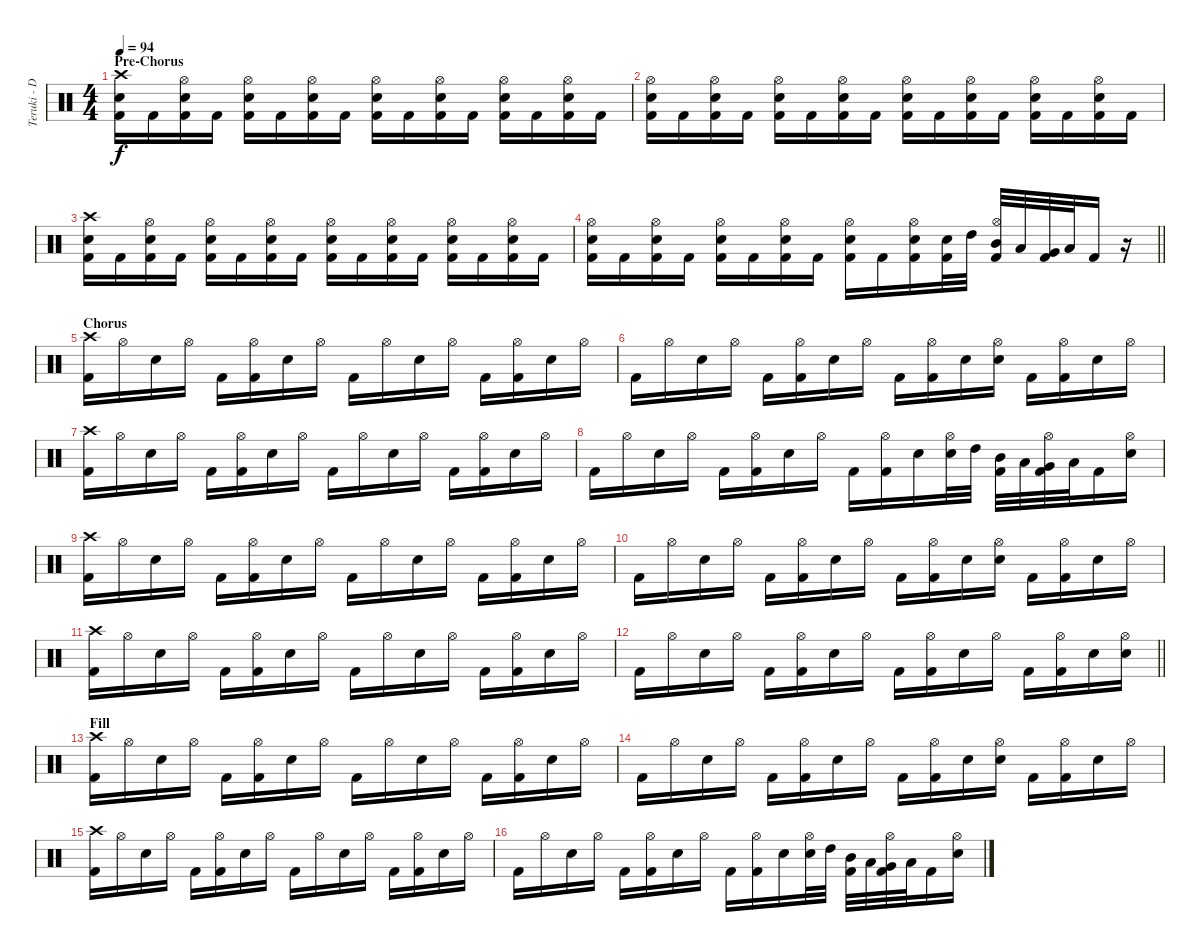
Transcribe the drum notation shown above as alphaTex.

\track ("Teruki - Drums" "Teruki - D") {instrument percussion}
\staff {score}
\articulation defaults
\ts (4 4)
\section ("" "Pre-Chorus")
\tempo 94
\clef neutral
\ks c
("Crash high (hit)" "Electric Snare (hit)" "Kick (hit) 2").16{dy f} "Kick (hit) 2".16 ("Hi-Hat (open)" "Electric Snare (hit)" "Kick (hit) 2").16 "Kick (hit) 2".16 ("Hi-Hat (open)" "Electric Snare (hit)" "Kick (hit) 2").16 "Kick (hit) 2".16 ("Hi-Hat (open)" "Electric Snare (hit)" "Kick (hit) 2").16 "Kick (hit) 2".16 ("Hi-Hat (open)" "Electric Snare (hit)" "Kick (hit) 2").16 "Kick (hit) 2".16 ("Hi-Hat (open)" "Electric Snare (hit)" "Kick (hit) 2").16 "Kick (hit) 2".16 ("Hi-Hat (open)" "Electric Snare (hit)" "Kick (hit) 2").16 "Kick (hit) 2".16 ("Hi-Hat (open)" "Electric Snare (hit)" "Kick (hit) 2").16 "Kick (hit) 2".16 |
("Hi-Hat (open)" "Electric Snare (hit)" "Kick (hit) 2").16 "Kick (hit) 2".16 ("Hi-Hat (open)" "Electric Snare (hit)" "Kick (hit) 2").16 "Kick (hit) 2".16 ("Hi-Hat (open)" "Electric Snare (hit)" "Kick (hit) 2").16 "Kick (hit) 2".16 ("Hi-Hat (open)" "Electric Snare (hit)" "Kick (hit) 2").16 "Kick (hit) 2".16 ("Hi-Hat (open)" "Electric Snare (hit)" "Kick (hit) 2").16 "Kick (hit) 2".16 ("Hi-Hat (open)" "Electric Snare (hit)" "Kick (hit) 2").16 "Kick (hit) 2".16 ("Hi-Hat (open)" "Electric Snare (hit)" "Kick (hit) 2").16 "Kick (hit) 2".16 ("Hi-Hat (open)" "Electric Snare (hit)" "Kick (hit) 2").16 "Kick (hit) 2".16 |
("Crash high (hit)" "Electric Snare (hit)" "Kick (hit) 2").16 "Kick (hit) 2".16 ("Hi-Hat (open)" "Electric Snare (hit)" "Kick (hit) 2").16 "Kick (hit) 2".16 ("Hi-Hat (open)" "Electric Snare (hit)" "Kick (hit) 2").16 "Kick (hit) 2".16 ("Hi-Hat (open)" "Electric Snare (hit)" "Kick (hit) 2").16 "Kick (hit) 2".16 ("Hi-Hat (open)" "Electric Snare (hit)" "Kick (hit) 2").16 "Kick (hit) 2".16 ("Hi-Hat (open)" "Electric Snare (hit)" "Kick (hit) 2").16 "Kick (hit) 2".16 ("Hi-Hat (open)" "Electric Snare (hit)" "Kick (hit) 2").16 "Kick (hit) 2".16 ("Hi-Hat (open)" "Electric Snare (hit)" "Kick (hit) 2").16 "Kick (hit) 2".16 |
\barLineRight lightlight
("Hi-Hat (open)" "Electric Snare (hit)" "Kick (hit) 2").16 "Kick (hit) 2".16 ("Hi-Hat (open)" "Electric Snare (hit)" "Kick (hit) 2").16 "Kick (hit) 2".16 ("Hi-Hat (open)" "Electric Snare (hit)" "Kick (hit) 2").16 "Kick (hit) 2".16 ("Hi-Hat (open)" "Electric Snare (hit)" "Kick (hit) 2").16 "Kick (hit) 2".16 ("Hi-Hat (open)" "Electric Snare (hit)" "Kick (hit) 2").16 "Kick (hit) 2".16 ("Hi-Hat (open)" "Electric Snare (hit)" "Kick (hit) 2").16 ("Electric Snare (hit)" "Kick (hit) 2").32 "High Tom (hit)".32 ("Hi-Hat (open)" "Mid Tom (hit)" "Kick (hit) 2").32 "Low Tom (hit)".32 ("Very Low Tom (hit)" "Kick (hit) 2").32 "Low Floor Tom (hit)".32 "Kick (hit) 2".16 r.16 |
\section ("" "Chorus")
("Crash high (hit)" "Kick (hit) 2").16 "Hi-Hat (open)".16 "Electric Snare (hit)".16 "Hi-Hat (open)".16 "Kick (hit) 2".16 ("Hi-Hat (open)" "Kick (hit) 2").16 "Electric Snare (hit)".16 "Hi-Hat (open)".16 "Kick (hit) 2".16 "Hi-Hat (open)".16 "Electric Snare (hit)".16 "Hi-Hat (open)".16 "Kick (hit) 2".16 ("Hi-Hat (open)" "Kick (hit) 2").16 "Electric Snare (hit)".16 "Hi-Hat (open)".16 |
"Kick (hit) 2".16 "Hi-Hat (open)".16 "Electric Snare (hit)".16 "Hi-Hat (open)".16 "Kick (hit) 2".16 ("Hi-Hat (open)" "Kick (hit) 2").16 "Electric Snare (hit)".16 "Hi-Hat (open)".16 "Kick (hit) 2".16 ("Hi-Hat (open)" "Kick (hit) 2").16 "Electric Snare (hit)".16 ("Hi-Hat (open)" "Electric Snare (hit)").16 "Kick (hit) 2".16 ("Hi-Hat (open)" "Kick (hit) 2").16 "Electric Snare (hit)".16 "Hi-Hat (open)".16 |
("Crash high (hit)" "Kick (hit) 2").16 "Hi-Hat (open)".16 "Electric Snare (hit)".16 "Hi-Hat (open)".16 "Kick (hit) 2".16 ("Hi-Hat (open)" "Kick (hit) 2").16 "Electric Snare (hit)".16 "Hi-Hat (open)".16 "Kick (hit) 2".16 "Hi-Hat (open)".16 "Electric Snare (hit)".16 "Hi-Hat (open)".16 "Kick (hit) 2".16 ("Hi-Hat (open)" "Kick (hit) 2").16 "Electric Snare (hit)".16 "Hi-Hat (open)".16 |
"Kick (hit) 2".16 "Hi-Hat (open)".16 "Electric Snare (hit)".16 "Hi-Hat (open)".16 "Kick (hit) 2".16 ("Hi-Hat (open)" "Kick (hit) 2").16 "Electric Snare (hit)".16 "Hi-Hat (open)".16 "Kick (hit) 2".16 ("Hi-Hat (open)" "Kick (hit) 2").16 "Electric Snare (hit)".16 ("Hi-Hat (open)" "Electric Snare (hit)").32 "High Tom (hit)".32 ("Mid Tom (hit)" "Kick (hit) 2").32 "Low Tom (hit)".32 ("Hi-Hat (open)" "Very Low Tom (hit)" "Kick (hit) 2").32 "Low Floor Tom (hit)".32 "Kick (hit) 2".16 ("Hi-Hat (open)" "Electric Snare (hit)").16 |
("Crash high (hit)" "Kick (hit) 2").16 "Hi-Hat (open)".16 "Electric Snare (hit)".16 "Hi-Hat (open)".16 "Kick (hit) 2".16 ("Hi-Hat (open)" "Kick (hit) 2").16 "Electric Snare (hit)".16 "Hi-Hat (open)".16 "Kick (hit) 2".16 "Hi-Hat (open)".16 "Electric Snare (hit)".16 "Hi-Hat (open)".16 "Kick (hit) 2".16 ("Hi-Hat (open)" "Kick (hit) 2").16 "Electric Snare (hit)".16 "Hi-Hat (open)".16 |
"Kick (hit) 2".16 "Hi-Hat (open)".16 "Electric Snare (hit)".16 "Hi-Hat (open)".16 "Kick (hit) 2".16 ("Hi-Hat (open)" "Kick (hit) 2").16 "Electric Snare (hit)".16 "Hi-Hat (open)".16 "Kick (hit) 2".16 ("Hi-Hat (open)" "Kick (hit) 2").16 "Electric Snare (hit)".16 ("Hi-Hat (open)" "Electric Snare (hit)").16 "Kick (hit) 2".16 ("Hi-Hat (open)" "Kick (hit) 2").16 "Electric Snare (hit)".16 "Hi-Hat (open)".16 |
("Crash high (hit)" "Kick (hit) 2").16 "Hi-Hat (open)".16 "Electric Snare (hit)".16 "Hi-Hat (open)".16 "Kick (hit) 2".16 ("Hi-Hat (open)" "Kick (hit) 2").16 "Electric Snare (hit)".16 "Hi-Hat (open)".16 "Kick (hit) 2".16 "Hi-Hat (open)".16 "Electric Snare (hit)".16 "Hi-Hat (open)".16 "Kick (hit) 2".16 ("Hi-Hat (open)" "Kick (hit) 2").16 "Electric Snare (hit)".16 "Hi-Hat (open)".16 |
\barLineRight lightlight "Kick (hit) 2".16 "Hi-Hat (open)".16 "Electric Snare (hit)".16 "Hi-Hat (open)".16 "Kick (hit) 2".16
("Hi-Hat (open)" "Kick (hit) 2").16 "Electric Snare (hit)".16 "Hi-Hat (open)".16 "Kick (hit) 2".16 ("Hi-Hat (open)" "Kick (hit) 2").16 "Electric Snare (hit)".16 "Hi-Hat (open)".16 "Kick (hit) 2".16 ("Hi-Hat (open)" "Kick (hit) 2").16 "Electric Snare (hit)".16 ("Hi-Hat (open)" "Electric Snare (hit)").16 |
\section ("" "Fill")
("Crash high (hit)" "Kick (hit) 2").16 "Hi-Hat (open)".16 "Electric Snare (hit)".16 "Hi-Hat (open)".16 "Kick (hit) 2".16 ("Hi-Hat (open)" "Kick (hit) 2").16 "Electric Snare (hit)".16 "Hi-Hat (open)".16 "Kick (hit) 2".16 "Hi-Hat (open)".16 "Electric Snare (hit)".16 "Hi-Hat (open)".16 "Kick (hit) 2".16 ("Hi-Hat (open)" "Kick (hit) 2").16 "Electric Snare (hit)".16 "Hi-Hat (open)".16 |
"Kick (hit) 2".16 "Hi-Hat (open)".16 "Electric Snare (hit)".16 "Hi-Hat (open)".16 "Kick (hit) 2".16 ("Hi-Hat (open)" "Kick (hit) 2").16 "Electric Snare (hit)".16 "Hi-Hat (open)".16 "Kick (hit) 2".16 ("Hi-Hat (open)" "Kick (hit) 2").16 "Electric Snare (hit)".16 ("Hi-Hat (open)" "Electric Snare (hit)").16 "Kick (hit) 2".16 ("Hi-Hat (open)" "Kick (hit) 2").16 "Electric Snare (hit)".16 "Hi-Hat (open)".16 |
("Crash high (hit)" "Kick (hit) 2").16 "Hi-Hat (open)".16 "Electric Snare (hit)".16 "Hi-Hat (open)".16 "Kick (hit) 2".16 ("Hi-Hat (open)" "Kick (hit) 2").16 "Electric Snare (hit)".16 "Hi-Hat (open)".16 "Kick (hit) 2".16 "Hi-Hat (open)".16 "Electric Snare (hit)".16 "Hi-Hat (open)".16 "Kick (hit) 2".16 ("Hi-Hat (open)" "Kick (hit) 2").16 "Electric Snare (hit)".16 "Hi-Hat (open)".16 |
"Kick (hit) 2".16 "Hi-Hat (open)".16 "Electric Snare (hit)".16 "Hi-Hat (open)".16 "Kick (hit) 2".16 ("Hi-Hat (open)" "Kick (hit) 2").16 "Electric Snare (hit)".16 "Hi-Hat (open)".16 "Kick (hit) 2".16 ("Hi-Hat (open)" "Kick (hit) 2").16 "Electric Snare (hit)".16 ("Hi-Hat (open)" "Electric Snare (hit)").32 "High Tom (hit)".32 ("Mid Tom (hit)" "Kick (hit) 2").32 "Low Tom (hit)".32 ("Hi-Hat (open)" "Very Low Tom (hit)" "Kick (hit) 2").32 "Low Floor Tom (hit)".32 "Kick (hit) 2".16 ("Hi-Hat (open)" "Electric Snare (hit)").16
